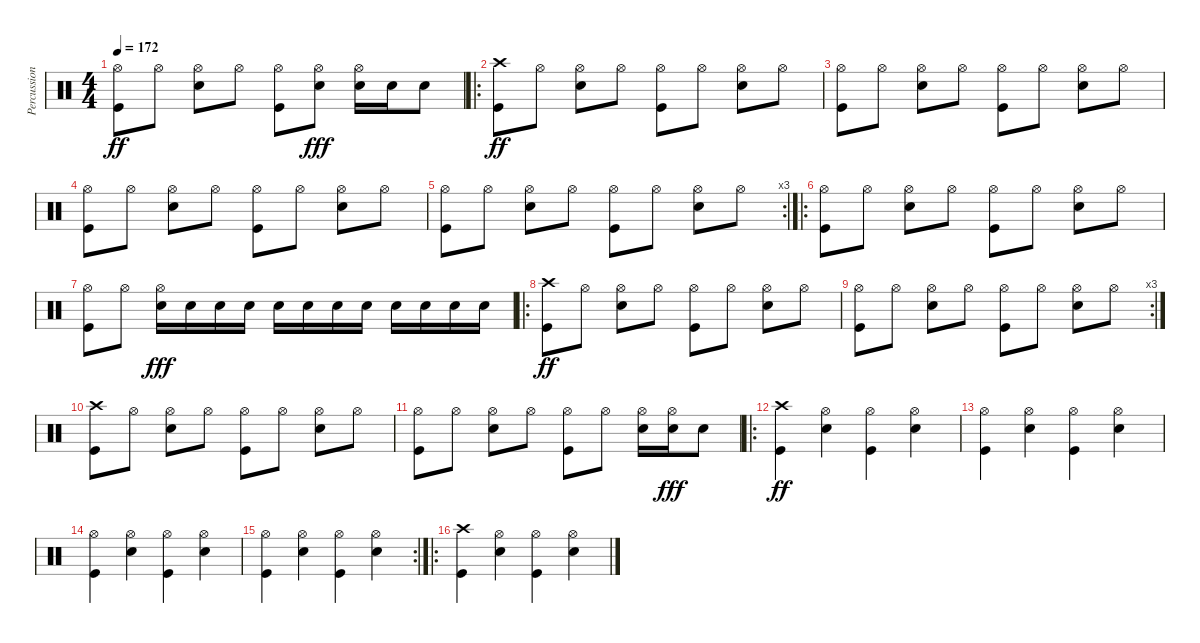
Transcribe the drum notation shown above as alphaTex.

\track ("Percussioni" "Percussion") {instrument percussion}
\staff {score}
\articulation defaults
\ts (4 4)
\tempo 172
\clef neutral
\ks c
("Hi-Hat (open)" "Kick (hit)").8{dy ff} "Hi-Hat (open)".8 ("Hi-Hat (open)" "Electric Snare (hit)").8 "Hi-Hat (open)".8 ("Hi-Hat (open)" "Kick (hit)").8 ("Hi-Hat (open)" "Electric Snare (hit)").8{dy fff} ("Hi-Hat (open)" "Electric Snare (hit)").16 "Electric Snare (hit)".16 "Electric Snare (hit)".8 |
\ro
("Crash high (hit)" "Kick (hit)").8{dy ff} "Hi-Hat (open)".8 ("Hi-Hat (open)" "Electric Snare (hit)").8 "Hi-Hat (open)".8 ("Hi-Hat (open)" "Kick (hit)").8 "Hi-Hat (open)".8 ("Hi-Hat (open)" "Electric Snare (hit)").8 "Hi-Hat (open)".8 |
("Hi-Hat (open)" "Kick (hit)").8 "Hi-Hat (open)".8 ("Hi-Hat (open)" "Electric Snare (hit)").8 "Hi-Hat (open)".8 ("Hi-Hat (open)" "Kick (hit)").8 "Hi-Hat (open)".8 ("Hi-Hat (open)" "Electric Snare (hit)").8 "Hi-Hat (open)".8 |
("Hi-Hat (open)" "Kick (hit)").8 "Hi-Hat (open)".8 ("Hi-Hat (open)" "Electric Snare (hit)").8 "Hi-Hat (open)".8 ("Hi-Hat (open)" "Kick (hit)").8 "Hi-Hat (open)".8 ("Hi-Hat (open)" "Electric Snare (hit)").8 "Hi-Hat (open)".8 |
\rc 3
("Hi-Hat (open)" "Kick (hit)").8 "Hi-Hat (open)".8 ("Hi-Hat (open)" "Electric Snare (hit)").8 "Hi-Hat (open)".8 ("Hi-Hat (open)" "Kick (hit)").8 "Hi-Hat (open)".8 ("Hi-Hat (open)" "Electric Snare (hit)").8 "Hi-Hat (open)".8 |
\ro
("Hi-Hat (open)" "Kick (hit)").8 "Hi-Hat (open)".8 ("Hi-Hat (open)" "Electric Snare (hit)").8 "Hi-Hat (open)".8 ("Hi-Hat (open)" "Kick (hit)").8 "Hi-Hat (open)".8 ("Hi-Hat (open)" "Electric Snare (hit)").8 "Hi-Hat (open)".8 |
("Hi-Hat (open)" "Kick (hit)").8 "Hi-Hat (open)".8 ("Hi-Hat (open)" "Electric Snare (hit)").16{dy fff} "Snare (hit)".16 "Electric Snare (hit)".16 "Electric Snare (hit)".16 "Electric Snare (hit)".16 "Electric Snare (hit)".16 "Electric Snare (hit)".16 "Electric Snare (hit)".16 "Electric Snare (hit)".16 "Electric Snare (hit)".16 "Electric Snare (hit)".16 "Electric Snare (hit)".16 |
\ro
("Crash high (hit)" "Kick (hit)").8{dy ff} "Hi-Hat (open)".8 ("Hi-Hat (open)" "Electric Snare (hit)").8 "Hi-Hat (open)".8 ("Hi-Hat (open)" "Kick (hit)").8 "Hi-Hat (open)".8 ("Hi-Hat (open)" "Electric Snare (hit)").8 "Hi-Hat (open)".8 |
\rc 3
("Hi-Hat (open)" "Kick (hit)").8 "Hi-Hat (open)".8 ("Hi-Hat (open)" "Electric Snare (hit)").8 "Hi-Hat (open)".8 ("Hi-Hat (open)" "Kick (hit)").8 "Hi-Hat (open)".8 ("Hi-Hat (open)" "Electric Snare (hit)").8 "Hi-Hat (open)".8 |
("Crash high (hit)" "Kick (hit)").8 "Hi-Hat (open)".8 ("Hi-Hat (open)" "Electric Snare (hit)").8 "Hi-Hat (open)".8 ("Hi-Hat (open)" "Kick (hit)").8 "Hi-Hat (open)".8 ("Hi-Hat (open)" "Electric Snare (hit)").8 "Hi-Hat (open)".8 |
("Hi-Hat (open)" "Kick (hit)").8 "Hi-Hat (open)".8 ("Hi-Hat (open)" "Electric Snare (hit)").8 "Hi-Hat (open)".8 ("Hi-Hat (open)" "Kick (hit)").8 "Hi-Hat (open)".8 ("Hi-Hat (open)" "Electric Snare (hit)").16 ("Hi-Hat (open)" "Electric Snare (hit)").16{dy fff} "Electric Snare (hit)".8 |
\ro
("Crash high (hit)" "Kick (hit)").4{dy ff} ("Hi-Hat (open)" "Electric Snare (hit)").4 ("Hi-Hat (open)" "Kick (hit)").4 ("Hi-Hat (open)" "Electric Snare (hit)").4 |
("Hi-Hat (open)" "Kick (hit)").4 ("Hi-Hat (open)" "Electric Snare (hit)").4 ("Hi-Hat (open)" "Kick (hit)").4 ("Hi-Hat (open)" "Electric Snare (hit)").4 |
("Hi-Hat (open)" "Kick (hit)").4 ("Hi-Hat (open)" "Electric Snare (hit)").4 ("Hi-Hat (open)" "Kick (hit)").4 ("Hi-Hat (open)" "Electric Snare (hit)").4 |
\rc 2
("Hi-Hat (open)" "Kick (hit)").4 ("Hi-Hat (open)" "Electric Snare (hit)").4 ("Hi-Hat (open)" "Kick (hit)").4 ("Hi-Hat (open)" "Electric Snare (hit)").4 |
\ro
("Crash high (hit)" "Kick (hit)").4 ("Hi-Hat (open)" "Electric Snare (hit)").4 ("Hi-Hat (open)" "Kick (hit)").4 ("Hi-Hat (open)" "Electric Snare (hit)").4
